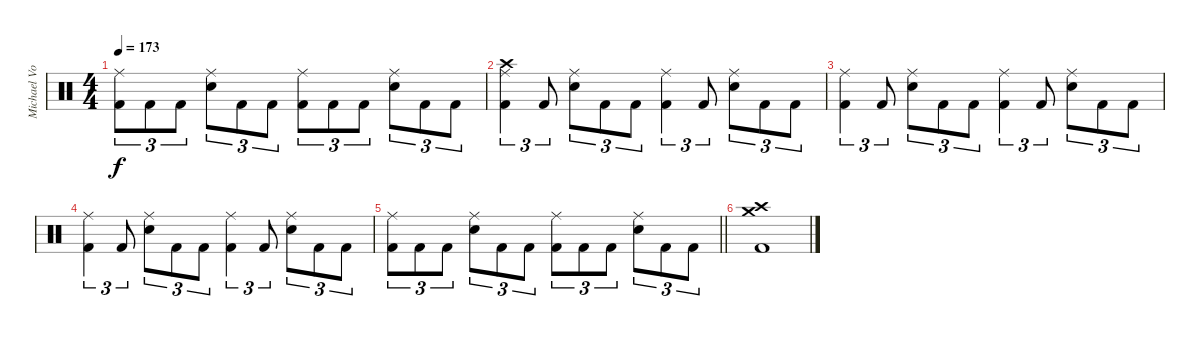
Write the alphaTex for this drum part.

\track ("Michael Von Knorring " "Michael Vo") {instrument percussion}
\staff {score}
\articulation defaults
\ts (4 4)
\tempo 173
\clef neutral
\ks c
("Ride (middle)" "Kick (hit) 2").8{tu (3 2) dy f} "Kick (hit) 2".8{tu (3 2)} "Kick (hit) 2".8{tu (3 2)} ("Ride (middle)" "Snare (hit) 2").8{tu (3 2)} "Kick (hit) 2".8{tu (3 2)} "Kick (hit) 2".8{tu (3 2)} ("Ride (middle)" "Kick (hit) 2").8{tu (3 2)} "Kick (hit) 2".8{tu (3 2)} "Kick (hit) 2".8{tu (3 2)} ("Ride (middle)" "Snare (hit) 2").8{tu (3 2)} "Kick (hit) 2".8{tu (3 2)} "Kick (hit) 2".8{tu (3 2)} |
("Crash high (hit)" "Ride (middle)" "Kick (hit) 2").4{tu (3 2)} "Kick (hit) 2".8{tu (3 2)} ("Ride (middle)" "Snare (hit) 2").8{tu (3 2)} "Kick (hit) 2".8{tu (3 2)} "Kick (hit) 2".8{tu (3 2)} ("Ride (middle)" "Kick (hit) 2").4{tu (3 2)} "Kick (hit) 2".8{tu (3 2)} ("Ride (middle)" "Snare (hit) 2").8{tu (3 2)} "Kick (hit) 2".8{tu (3 2)} "Kick (hit) 2".8{tu (3 2)} |
("Ride (middle)" "Kick (hit) 2").4{tu (3 2)} "Kick (hit) 2".8{tu (3 2)} ("Ride (middle)" "Snare (hit) 2").8{tu (3 2)} "Kick (hit) 2".8{tu (3 2)} "Kick (hit) 2".8{tu (3 2)} ("Ride (middle)" "Kick (hit) 2").4{tu (3 2)} "Kick (hit) 2".8{tu (3 2)} ("Ride (middle)" "Snare (hit) 2").8{tu (3 2)} "Kick (hit) 2".8{tu (3 2)} "Kick (hit) 2".8{tu (3 2)} |
("Ride (middle)" "Kick (hit) 2").4{tu (3 2)} "Kick (hit) 2".8{tu (3 2)} ("Ride (middle)" "Snare (hit) 2").8{tu (3 2)} "Kick (hit) 2".8{tu (3 2)} "Kick (hit) 2".8{tu (3 2)} ("Ride (middle)" "Kick (hit) 2").4{tu (3 2)} "Kick (hit) 2".8{tu (3 2)} ("Ride (middle)" "Snare (hit) 2").8{tu (3 2)} "Kick (hit) 2".8{tu (3 2)} "Kick (hit) 2".8{tu (3 2)} |
\barLineRight lightlight
("Ride (middle)" "Kick (hit) 2").8{tu (3 2)} "Kick (hit) 2".8{tu (3 2)} "Kick (hit) 2".8{tu (3 2)} ("Ride (middle)" "Snare (hit) 2").8{tu (3 2)} "Kick (hit) 2".8{tu (3 2)} "Kick (hit) 2".8{tu (3 2)} ("Ride (middle)" "Kick (hit) 2").8{tu (3 2)} "Kick (hit) 2".8{tu (3 2)} "Kick (hit) 2".8{tu (3 2)} ("Ride (middle)" "Snare (hit) 2").8{tu (3 2)} "Kick (hit) 2".8{tu (3 2)} "Kick (hit) 2".8{tu (3 2)} |
("Crash high (hit)" "Crash medium (hit)" "Kick (hit) 2").1
